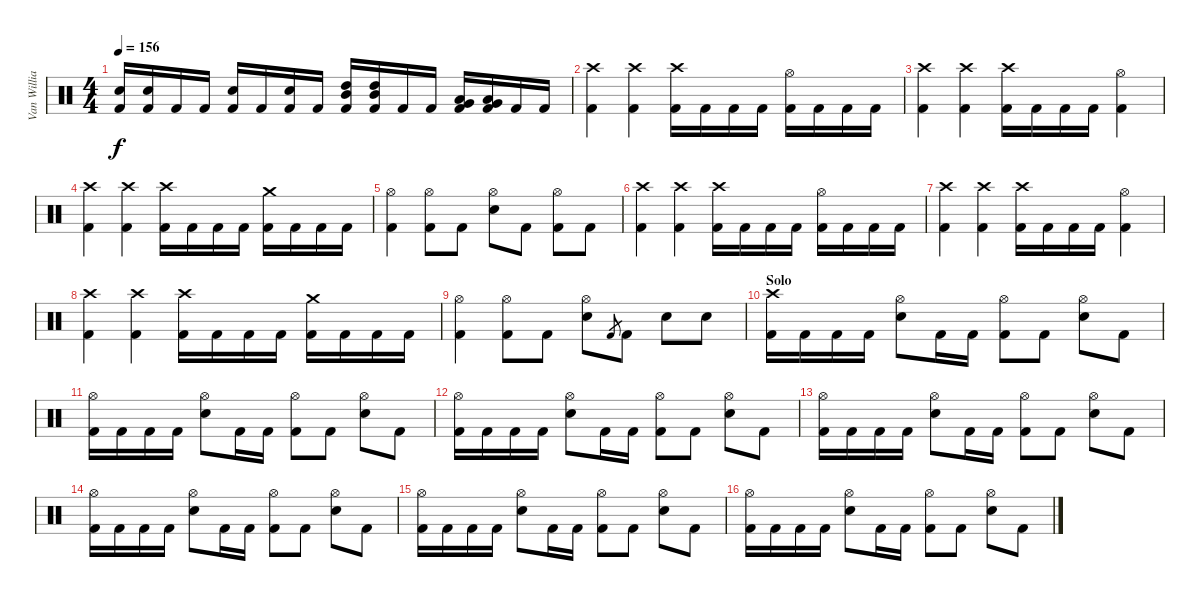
\track ("Van Williams" "Van Willia") {instrument percussion}
\staff {score}
\articulation defaults
\ts (4 4)
\tempo 156
\clef neutral
\ks c
("Electric Snare (hit)" "Kick (hit) 2").16{dy f} ("Electric Snare (hit)" "Kick (hit) 2").16 "Kick (hit) 2".16 "Kick (hit) 2".16 ("Electric Snare (hit)" "Kick (hit) 2").16 "Kick (hit) 2".16 ("Electric Snare (hit)" "Kick (hit) 2").16 "Kick (hit) 2".16 ("High Tom (hit)" "Mid Tom (hit)" "Kick (hit) 2").16 ("High Tom (hit)" "Mid Tom (hit)" "Kick (hit) 2").16 "Kick (hit) 2".16 "Kick (hit) 2".16 ("Low Tom (hit)" "Very Low Tom (hit)" "Kick (hit) 2").16 ("Low Tom (hit)" "Very Low Tom (hit)" "Kick (hit) 2").16 "Kick (hit) 2".16 "Kick (hit) 2".16 |
("Crash high (hit)" "Kick (hit) 2").4 ("Crash high (hit)" "Kick (hit) 2").4 ("Crash high (hit)" "Kick (hit) 2").16 "Kick (hit) 2".16 "Kick (hit) 2".16 "Kick (hit) 2".16 ("Hi-Hat (open)" "Kick (hit) 2").16 "Kick (hit) 2".16 "Kick (hit) 2".16 "Kick (hit) 2".16 |
("Crash high (hit)" "Kick (hit) 2").4 ("Crash high (hit)" "Kick (hit) 2").4 ("Crash high (hit)" "Kick (hit) 2").16 "Kick (hit) 2".16 "Kick (hit) 2".16 "Kick (hit) 2".16 ("Hi-Hat (open)" "Kick (hit) 2").4 |
("Crash high (hit)" "Kick (hit) 2").4 ("Crash high (hit)" "Kick (hit) 2").4 ("Crash high (hit)" "Kick (hit) 2").16 "Kick (hit) 2".16 "Kick (hit) 2".16 "Kick (hit) 2".16 ("Crash medium (hit)" "Kick (hit) 2").16 "Kick (hit) 2".16 "Kick (hit) 2".16 "Kick (hit) 2".16 |
("Hi-Hat (open)" "Kick (hit) 2").4 ("Hi-Hat (open)" "Kick (hit) 2").8 "Kick (hit) 2".8 ("Hi-Hat (open)" "Electric Snare (hit)").8 "Kick (hit) 2".8 ("Hi-Hat (open)" "Kick (hit) 2").8 "Kick (hit) 2".8 |
("Crash high (hit)" "Kick (hit) 2").4 ("Crash high (hit)" "Kick (hit) 2").4 ("Crash high (hit)" "Kick (hit) 2").16 "Kick (hit) 2".16 "Kick (hit) 2".16 "Kick (hit) 2".16 ("Hi-Hat (open)" "Kick (hit) 2").16 "Kick (hit) 2".16 "Kick (hit) 2".16 "Kick (hit) 2".16 |
("Crash high (hit)" "Kick (hit) 2").4 ("Crash high (hit)" "Kick (hit) 2").4 ("Crash high (hit)" "Kick (hit) 2").16 "Kick (hit) 2".16 "Kick (hit) 2".16 "Kick (hit) 2".16 ("Hi-Hat (open)" "Kick (hit) 2").4 |
("Crash high (hit)" "Kick (hit) 2").4 ("Crash high (hit)" "Kick (hit) 2").4 ("Crash high (hit)" "Kick (hit) 2").16 "Kick (hit) 2".16 "Kick (hit) 2".16 "Kick (hit) 2".16 ("Crash medium (hit)" "Kick (hit) 2").16 "Kick (hit) 2".16 "Kick (hit) 2".16 "Kick (hit) 2".16 |
("Hi-Hat (open)" "Kick (hit) 2").4 ("Hi-Hat (open)" "Kick (hit) 2").8 "Kick (hit) 2".8 ("Hi-Hat (open)" "Electric Snare (hit)").8 "Kick (hit) 2".8{gr} "Kick (hit) 2".8 "Electric Snare (hit)".8 "Electric Snare (hit)".8 |
\section ("" "Solo")
("Crash high (hit)" "Kick (hit) 2").16 "Kick (hit) 2".16 "Kick (hit) 2".16 "Kick (hit) 2".16 ("Hi-Hat (open)" "Electric Snare (hit)").8 "Kick (hit) 2".16 "Kick (hit) 2".16 ("Hi-Hat (open)" "Kick (hit) 2").8 "Kick (hit) 2".8 ("Hi-Hat (open)" "Electric Snare (hit)").8 "Kick (hit) 2".8 |
("Hi-Hat (open)" "Kick (hit) 2").16 "Kick (hit) 2".16 "Kick (hit) 2".16 "Kick (hit) 2".16 ("Hi-Hat (open)" "Electric Snare (hit)").8 "Kick (hit) 2".16 "Kick (hit) 2".16 ("Hi-Hat (open)" "Kick (hit) 2").8 "Kick (hit) 2".8 ("Hi-Hat (open)" "Electric Snare (hit)").8 "Kick (hit) 2".8 |
("Hi-Hat (open)" "Kick (hit) 2").16 "Kick (hit) 2".16 "Kick (hit) 2".16 "Kick (hit) 2".16 ("Hi-Hat (open)" "Electric Snare (hit)").8 "Kick (hit) 2".16 "Kick (hit) 2".16 ("Hi-Hat (open)" "Kick (hit) 2").8 "Kick (hit) 2".8 ("Hi-Hat (open)" "Electric Snare (hit)").8 "Kick (hit) 2".8 |
("Hi-Hat (open)" "Kick (hit) 2").16 "Kick (hit) 2".16 "Kick (hit) 2".16 "Kick (hit) 2".16 ("Hi-Hat (open)" "Electric Snare (hit)").8 "Kick (hit) 2".16 "Kick (hit) 2".16 ("Hi-Hat (open)" "Kick (hit) 2").8 "Kick (hit) 2".8 ("Hi-Hat (open)" "Electric Snare (hit)").8 "Kick (hit) 2".8 |
("Hi-Hat (open)" "Kick (hit) 2").16 "Kick (hit) 2".16 "Kick (hit) 2".16 "Kick (hit) 2".16 ("Hi-Hat (open)" "Electric Snare (hit)").8 "Kick (hit) 2".16 "Kick (hit) 2".16 ("Hi-Hat (open)" "Kick (hit) 2").8 "Kick (hit) 2".8 ("Hi-Hat (open)" "Electric Snare (hit)").8 "Kick (hit) 2".8 |
("Hi-Hat (open)" "Kick (hit) 2").16 "Kick (hit) 2".16 "Kick (hit) 2".16 "Kick (hit) 2".16 ("Hi-Hat (open)" "Electric Snare (hit)").8 "Kick (hit) 2".16 "Kick (hit) 2".16 ("Hi-Hat (open)" "Kick (hit) 2").8 "Kick (hit) 2".8 ("Hi-Hat (open)" "Electric Snare (hit)").8 "Kick (hit) 2".8 |
("Hi-Hat (open)" "Kick (hit) 2").16 "Kick (hit) 2".16 "Kick (hit) 2".16 "Kick (hit) 2".16 ("Hi-Hat (open)" "Electric Snare (hit)").8 "Kick (hit) 2".16 "Kick (hit) 2".16 ("Hi-Hat (open)" "Kick (hit) 2").8 "Kick (hit) 2".8 ("Hi-Hat (open)" "Electric Snare (hit)").8 "Kick (hit) 2".8
